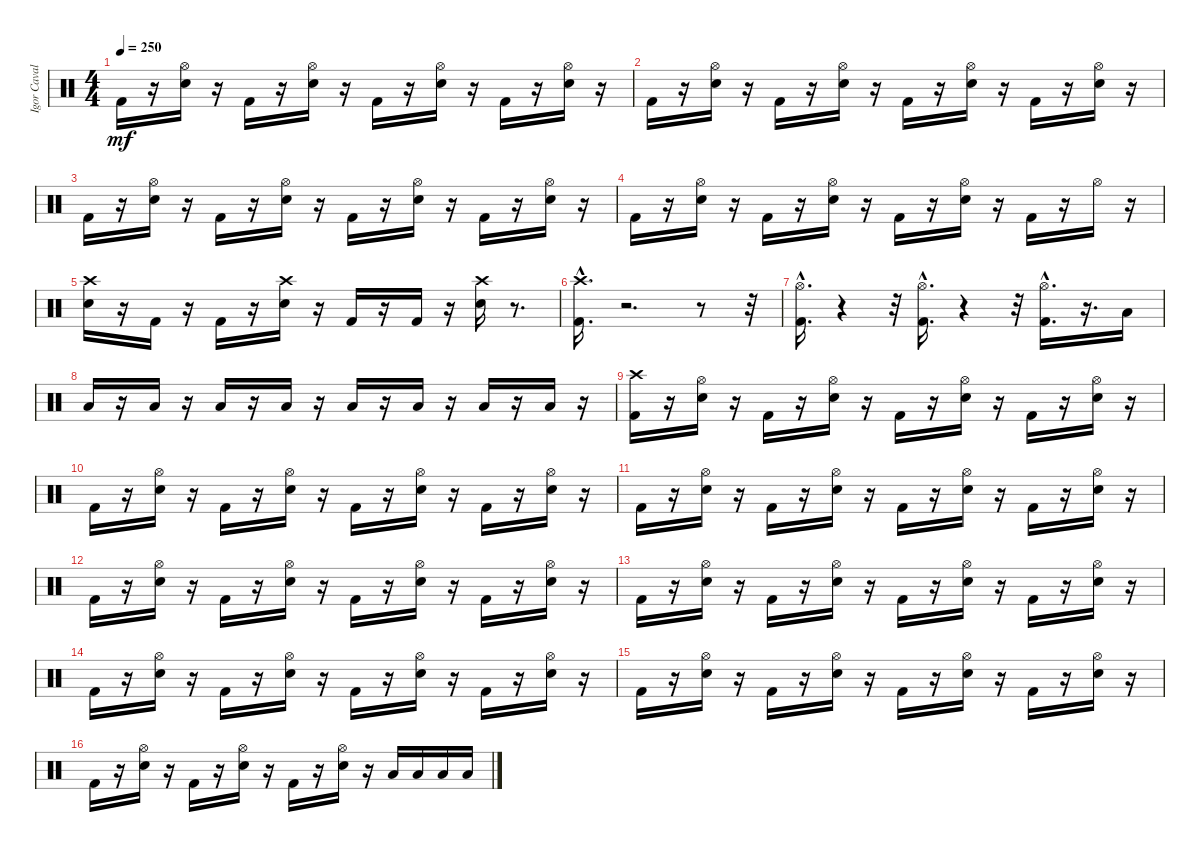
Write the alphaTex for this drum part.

\track ("Igor Cavalera" "Igor Caval") {instrument percussion}
\staff {score}
\articulation defaults
\ts (4 4)
\tempo 250
\clef neutral
\ks c "Kick (hit) 2".16{dy mf}
r.16 ("Snare (hit) 2" "Hi-Hat (open)").16 r.16 "Kick (hit) 2".16 r.16 ("Snare (hit) 2" "Hi-Hat (open)").16 r.16 "Kick (hit) 2".16 r.16 ("Snare (hit) 2" "Hi-Hat (open)").16 r.16 "Kick (hit) 2".16 r.16 ("Snare (hit) 2" "Hi-Hat (open)").16 r.16 |
"Kick (hit) 2".16 r.16 ("Snare (hit) 2" "Hi-Hat (open)").16 r.16 "Kick (hit) 2".16 r.16 ("Snare (hit) 2" "Hi-Hat (open)").16 r.16 "Kick (hit) 2".16 r.16 ("Snare (hit) 2" "Hi-Hat (open)").16 r.16 "Kick (hit) 2".16 r.16 ("Snare (hit) 2" "Hi-Hat (open)").16 r.16 |
"Kick (hit) 2".16 r.16 ("Snare (hit) 2" "Hi-Hat (open)").16 r.16 "Kick (hit) 2".16 r.16 ("Snare (hit) 2" "Hi-Hat (open)").16 r.16 "Kick (hit) 2".16 r.16 ("Snare (hit) 2" "Hi-Hat (open)").16 r.16 "Kick (hit) 2".16 r.16 ("Snare (hit) 2" "Hi-Hat (open)").16 r.16 |
"Kick (hit) 2".16 r.16 ("Snare (hit) 2" "Hi-Hat (open)").16 r.16 "Kick (hit) 2".16 r.16 ("Snare (hit) 2" "Hi-Hat (open)").16 r.16 "Kick (hit) 2".16 r.16 ("Snare (hit) 2" "Hi-Hat (open)").16 r.16 "Kick (hit) 2".16 r.16 "Hi-Hat (open)".16 r.16 |
("Crash high (hit)" "Snare (hit) 2").16 r.16 "Kick (hit) 2".16 r.16 "Kick (hit) 2".16 r.16 ("Snare (hit) 2" "Crash high (hit)").16 r.16 "Kick (hit) 2".16 r.16 "Kick (hit) 2".16 r.16 ("Snare (hit) 2" "Crash high (hit)").16 r.8{d} |
("Crash high (hit)"{hac} "Kick (hit) 2"{hac}).16{d} r.2{d} r.8 r.32 |
("Kick (hit) 2"{hac} "Hi-Hat (open)"{hac}).16{d} r.4 r.32 ("Hi-Hat (open)"{hac} "Kick (hit) 2"{hac}).16{d} r.4 r.32 ("Hi-Hat (open)"{hac} "Kick (hit) 2"{hac}).16{d} r.16{d} "Low Tom (hit)".16 |
"Low Tom (hit)".16 r.16 "Low Tom (hit)".16 r.16 "Low Tom (hit)".16 r.16 "Low Tom (hit)".16 r.16 "Low Floor Tom (hit)".16 r.16 "Low Floor Tom (hit)".16 r.16 "Low Floor Tom (hit)".16 r.16 "Low Floor Tom (hit)".16 r.16 |
("Crash high (hit)" "Kick (hit) 2").16 r.16 ("Snare (hit) 2" "Hi-Hat (open)").16 r.16 "Kick (hit) 2".16 r.16 ("Snare (hit) 2" "Hi-Hat (open)").16 r.16 "Kick (hit) 2".16 r.16 ("Snare (hit) 2" "Hi-Hat (open)").16 r.16 "Kick (hit) 2".16 r.16 ("Snare (hit) 2" "Hi-Hat (open)").16 r.16 |
"Kick (hit) 2".16 r.16 ("Snare (hit) 2" "Hi-Hat (open)").16 r.16 "Kick (hit) 2".16 r.16 ("Snare (hit) 2" "Hi-Hat (open)").16 r.16 "Kick (hit) 2".16 r.16 ("Snare (hit) 2" "Hi-Hat (open)").16 r.16 "Kick (hit) 2".16 r.16 ("Snare (hit) 2" "Hi-Hat (open)").16 r.16 |
"Kick (hit) 2".16 r.16 ("Snare (hit) 2" "Hi-Hat (open)").16 r.16 "Kick (hit) 2".16 r.16 ("Snare (hit) 2" "Hi-Hat (open)").16 r.16 "Kick (hit) 2".16 r.16 ("Snare (hit) 2" "Hi-Hat (open)").16 r.16 "Kick (hit) 2".16 r.16 ("Snare (hit) 2" "Hi-Hat (open)").16 r.16 |
"Kick (hit) 2".16 r.16 ("Snare (hit) 2" "Hi-Hat (open)").16 r.16 "Kick (hit) 2".16 r.16 ("Snare (hit) 2" "Hi-Hat (open)").16 r.16 "Kick (hit) 2".16 r.16 ("Snare (hit) 2" "Hi-Hat (open)").16 r.16 "Kick (hit) 2".16 r.16 ("Snare (hit) 2" "Hi-Hat (open)").16 r.16 |
"Kick (hit) 2".16 r.16 ("Snare (hit) 2" "Hi-Hat (open)").16 r.16 "Kick (hit) 2".16 r.16 ("Snare (hit) 2" "Hi-Hat (open)").16 r.16 "Kick (hit) 2".16 r.16 ("Snare (hit) 2" "Hi-Hat (open)").16 r.16 "Kick (hit) 2".16 r.16 ("Snare (hit) 2" "Hi-Hat (open)").16 r.16 |
"Kick (hit) 2".16 r.16 ("Snare (hit) 2" "Hi-Hat (open)").16 r.16 "Kick (hit) 2".16 r.16 ("Snare (hit) 2" "Hi-Hat (open)").16 r.16 "Kick (hit) 2".16 r.16 ("Snare (hit) 2" "Hi-Hat (open)").16 r.16 "Kick (hit) 2".16 r.16 ("Snare (hit) 2" "Hi-Hat (open)").16 r.16 |
"Kick (hit) 2".16 r.16 ("Snare (hit) 2" "Hi-Hat (open)").16 r.16 "Kick (hit) 2".16 r.16 ("Snare (hit) 2" "Hi-Hat (open)").16 r.16 "Kick (hit) 2".16 r.16 ("Snare (hit) 2" "Hi-Hat (open)").16 r.16 "Kick (hit) 2".16 r.16 ("Snare (hit) 2" "Hi-Hat (open)").16 r.16 |
"Kick (hit) 2".16 r.16 ("Snare (hit) 2" "Hi-Hat (open)").16 r.16 "Kick (hit) 2".16 r.16 ("Snare (hit) 2" "Hi-Hat (open)").16 r.16 "Kick (hit) 2".16 r.16 ("Snare (hit) 2" "Hi-Hat (open)").16 r.16 "Low Tom (hit)".16 "Low Tom (hit)".16 "Low Floor Tom (hit)".16 "Low Floor Tom (hit)".16
